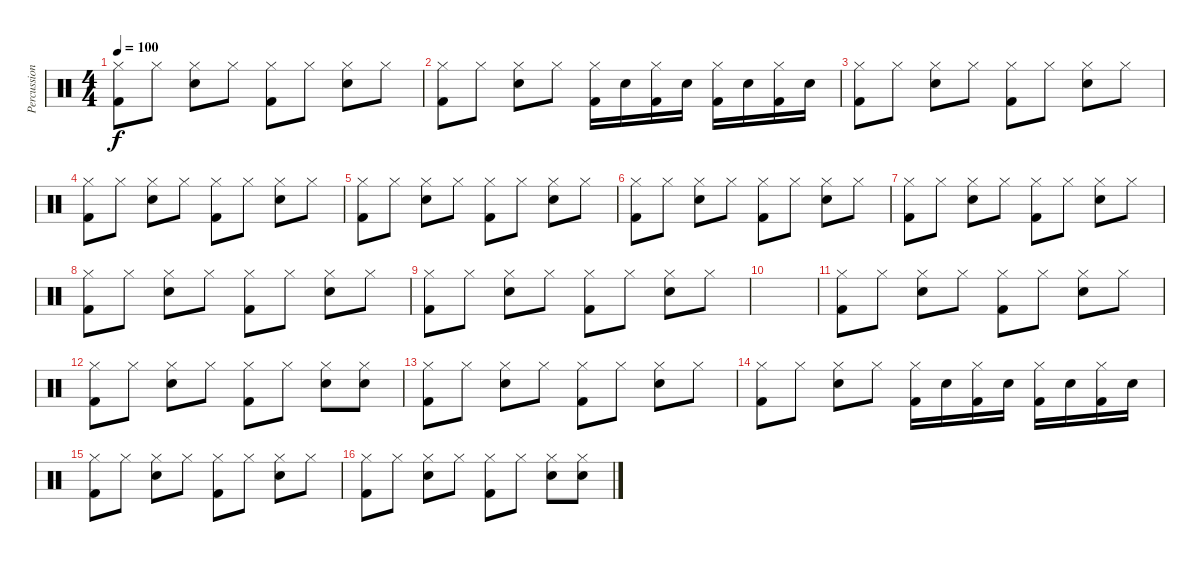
\track ("Percussions" "Percussion") {instrument percussion}
\staff {score}
\articulation defaults
\ts (4 4)
\tempo 100
\clef neutral
\ks c
("Hi-Hat (closed)" "Kick (hit) 2").8{dy f} "Hi-Hat (closed)".8 ("Hi-Hat (closed)" "Snare (hit) 2").8 "Hi-Hat (closed)".8 ("Hi-Hat (closed)" "Kick (hit) 2").8 "Hi-Hat (closed)".8 ("Hi-Hat (closed)" "Snare (hit) 2").8 "Hi-Hat (closed)".8 |
("Hi-Hat (closed)" "Kick (hit) 2").8 "Hi-Hat (closed)".8 ("Hi-Hat (closed)" "Snare (hit) 2").8 "Hi-Hat (closed)".8 ("Kick (hit) 2" "Hi-Hat (closed)").16 "Snare (hit) 2".16 ("Kick (hit) 2" "Hi-Hat (closed)").16 "Snare (hit) 2".16 ("Kick (hit) 2" "Hi-Hat (closed)").16 "Snare (hit) 2".16 ("Kick (hit) 2" "Hi-Hat (closed)").16 "Snare (hit) 2".16 |
("Hi-Hat (closed)" "Kick (hit) 2").8 "Hi-Hat (closed)".8 ("Hi-Hat (closed)" "Snare (hit) 2").8 "Hi-Hat (closed)".8 ("Hi-Hat (closed)" "Kick (hit) 2").8 "Hi-Hat (closed)".8 ("Hi-Hat (closed)" "Snare (hit) 2").8 "Hi-Hat (closed)".8 |
("Hi-Hat (closed)" "Kick (hit) 2").8 "Hi-Hat (closed)".8 ("Hi-Hat (closed)" "Snare (hit) 2").8 "Hi-Hat (closed)".8 ("Hi-Hat (closed)" "Kick (hit) 2").8 "Hi-Hat (closed)".8 ("Hi-Hat (closed)" "Snare (hit) 2").8 "Hi-Hat (closed)".8 |
("Hi-Hat (closed)" "Kick (hit) 2").8 "Hi-Hat (closed)".8 ("Hi-Hat (closed)" "Snare (hit) 2").8 "Hi-Hat (closed)".8 ("Hi-Hat (closed)" "Kick (hit) 2").8 "Hi-Hat (closed)".8 ("Hi-Hat (closed)" "Snare (hit) 2").8 "Hi-Hat (closed)".8 |
("Hi-Hat (closed)" "Kick (hit) 2").8 "Hi-Hat (closed)".8 ("Hi-Hat (closed)" "Snare (hit) 2").8 "Hi-Hat (closed)".8 ("Hi-Hat (closed)" "Kick (hit) 2").8 "Hi-Hat (closed)".8 ("Hi-Hat (closed)" "Snare (hit) 2").8 "Hi-Hat (closed)".8 |
("Hi-Hat (closed)" "Kick (hit) 2").8 "Hi-Hat (closed)".8 ("Hi-Hat (closed)" "Snare (hit) 2").8 "Hi-Hat (closed)".8 ("Hi-Hat (closed)" "Kick (hit) 2").8 "Hi-Hat (closed)".8 ("Hi-Hat (closed)" "Snare (hit) 2").8 "Hi-Hat (closed)".8 |
("Hi-Hat (closed)" "Kick (hit) 2").8 "Hi-Hat (closed)".8 ("Hi-Hat (closed)" "Snare (hit) 2").8 "Hi-Hat (closed)".8 ("Hi-Hat (closed)" "Kick (hit) 2").8 "Hi-Hat (closed)".8 ("Hi-Hat (closed)" "Snare (hit) 2").8 "Hi-Hat (closed)".8 |
("Hi-Hat (closed)" "Kick (hit) 2").8 "Hi-Hat (closed)".8 ("Hi-Hat (closed)" "Snare (hit) 2").8 "Hi-Hat (closed)".8 ("Hi-Hat (closed)" "Kick (hit) 2").8 "Hi-Hat (closed)".8 ("Hi-Hat (closed)" "Snare (hit) 2").8 "Hi-Hat (closed)".8 |
|
("Hi-Hat (closed)" "Kick (hit) 2").8 "Hi-Hat (closed)".8 ("Hi-Hat (closed)" "Snare (hit) 2").8 "Hi-Hat (closed)".8 ("Hi-Hat (closed)" "Kick (hit) 2").8 "Hi-Hat (closed)".8 ("Hi-Hat (closed)" "Snare (hit) 2").8 "Hi-Hat (closed)".8 |
("Hi-Hat (closed)" "Kick (hit) 2").8 "Hi-Hat (closed)".8 ("Hi-Hat (closed)" "Snare (hit) 2").8 "Hi-Hat (closed)".8 ("Hi-Hat (closed)" "Kick (hit) 2").8 "Hi-Hat (closed)".8 ("Hi-Hat (closed)" "Snare (hit) 2").8 ("Hi-Hat (closed)" "Snare (hit) 2").8 |
("Hi-Hat (closed)" "Kick (hit) 2").8 "Hi-Hat (closed)".8 ("Hi-Hat (closed)" "Snare (hit) 2").8 "Hi-Hat (closed)".8 ("Hi-Hat (closed)" "Kick (hit) 2").8 "Hi-Hat (closed)".8 ("Hi-Hat (closed)" "Snare (hit) 2").8 "Hi-Hat (closed)".8 |
("Hi-Hat (closed)" "Kick (hit) 2").8 "Hi-Hat (closed)".8 ("Hi-Hat (closed)" "Snare (hit) 2").8 "Hi-Hat (closed)".8 ("Kick (hit) 2" "Hi-Hat (closed)").16 "Snare (hit) 2".16 ("Kick (hit) 2" "Hi-Hat (closed)").16 "Snare (hit) 2".16 ("Kick (hit) 2" "Hi-Hat (closed)").16 "Snare (hit) 2".16 ("Kick (hit) 2" "Hi-Hat (closed)").16 "Snare (hit) 2".16 |
("Hi-Hat (closed)" "Kick (hit) 2").8 "Hi-Hat (closed)".8 ("Hi-Hat (closed)" "Snare (hit) 2").8 "Hi-Hat (closed)".8 ("Hi-Hat (closed)" "Kick (hit) 2").8 "Hi-Hat (closed)".8 ("Hi-Hat (closed)" "Snare (hit) 2").8 "Hi-Hat (closed)".8 |
("Hi-Hat (closed)" "Kick (hit) 2").8 "Hi-Hat (closed)".8 ("Hi-Hat (closed)" "Snare (hit) 2").8 "Hi-Hat (closed)".8 ("Hi-Hat (closed)" "Kick (hit) 2").8 "Hi-Hat (closed)".8 ("Hi-Hat (closed)" "Snare (hit) 2").8 ("Hi-Hat (closed)" "Snare (hit) 2").8
